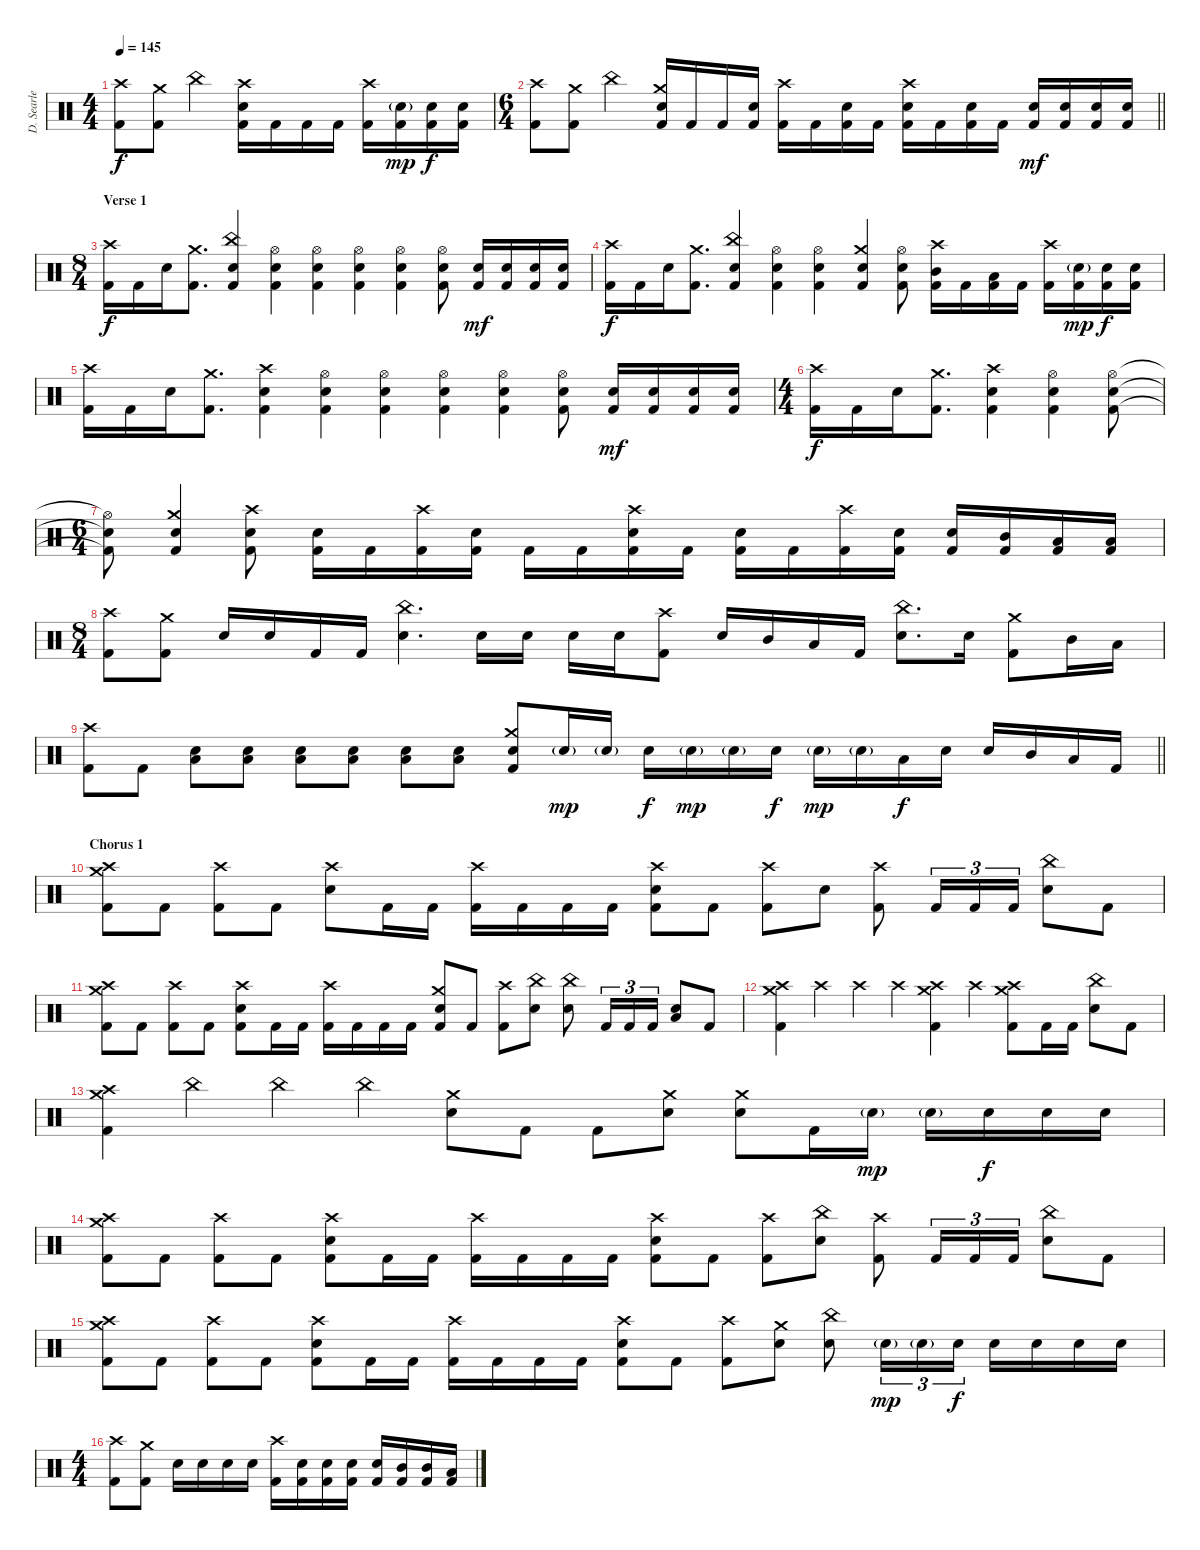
\track ("D. Searle" "D. Searle") {instrument percussion}
\staff {score}
\articulation defaults
\ts (4 4)
\tempo 145
\clef neutral
\ks c
("Crash high (hit)" "Kick (hit) 2").8{dy f} ("Crash medium (hit)" "Kick (hit) 2").8 "China (hit)".4 ("Crash high (hit)" "Electric Snare (hit)" "Kick (hit) 2").16 "Kick (hit) 2".16 "Kick (hit) 2".16 "Kick (hit) 2".16 ("Crash high (hit)" "Kick (hit) 2").16 ("Electric Snare (hit)"{g} "Kick (hit) 2").16{dy mp} ("Electric Snare (hit)" "Kick (hit) 2").16{dy f} ("Electric Snare (hit)" "Kick (hit) 2").16 |
\ts (6 4)
\barLineRight lightlight
("Crash high (hit)" "Kick (hit) 2").8 ("Crash medium (hit)" "Kick (hit) 2").8 "China (hit)".4 ("Crash medium (hit)" "Electric Snare (hit)" "Kick (hit) 2").16 "Kick (hit) 2".16 "Kick (hit) 2".16 ("Electric Snare (hit)" "Kick (hit) 2").16 ("Crash high (hit)" "Kick (hit) 2").16 "Kick (hit) 2".16 ("Electric Snare (hit)" "Kick (hit) 2").16 "Kick (hit) 2".16 ("Crash high (hit)" "Electric Snare (hit)" "Kick (hit) 2").16 "Kick (hit) 2".16 ("Electric Snare (hit)" "Kick (hit) 2").16 "Kick (hit) 2".16 ("Electric Snare (hit)" "Kick (hit) 2").16{dy mf} ("Electric Snare (hit)" "Kick (hit) 2").16 ("Electric Snare (hit)" "Kick (hit) 2").16 ("Electric Snare (hit)" "Kick (hit) 2").16 |
\ts (8 4)
\section ("" "Verse 1")
("Crash high (hit)" "Kick (hit) 2").16{dy f} "Kick (hit) 2".16 "Electric Snare (hit)".16 ("Crash medium (hit)" "Kick (hit) 2").8{d} ("China (hit)" "Electric Snare (hit)" "Kick (hit) 2").4 ("Hi-Hat (open)" "Electric Snare (hit)" "Kick (hit) 2").4 ("Hi-Hat (open)" "Electric Snare (hit)" "Kick (hit) 2").4 ("Hi-Hat (open)" "Electric Snare (hit)" "Kick (hit) 2").4 ("Hi-Hat (open)" "Electric Snare (hit)" "Kick (hit) 2").4 ("Hi-Hat (open)" "Electric Snare (hit)" "Kick (hit) 2").8 ("Electric Snare (hit)" "Kick (hit) 2").16{dy mf} ("Electric Snare (hit)" "Kick (hit) 2").16 ("Electric Snare (hit)" "Kick (hit) 2").16 ("Electric Snare (hit)" "Kick (hit) 2").16 |
("Crash high (hit)" "Kick (hit) 2").16{dy f} "Kick (hit) 2".16 "Electric Snare (hit)".16 ("Crash medium (hit)" "Kick (hit) 2").8{d} ("China (hit)" "Electric Snare (hit)" "Kick (hit) 2").4 ("Hi-Hat (open)" "Electric Snare (hit)" "Kick (hit) 2").4 ("Hi-Hat (open)" "Electric Snare (hit)" "Kick (hit) 2").4 ("Crash medium (hit)" "Electric Snare (hit)" "Kick (hit) 2").4 ("Hi-Hat (open)" "Electric Snare (hit)" "Kick (hit) 2").8 ("Crash high (hit)" "Mid Tom (hit)" "Kick (hit) 2").16 "Kick (hit) 2".16 ("Low Tom (hit)" "Kick (hit) 2").16 "Kick (hit) 2".16 ("Crash high (hit)" "Kick (hit) 2").16 ("Electric Snare (hit)"{g} "Kick (hit) 2").16{dy mp} ("Electric Snare (hit)" "Kick (hit) 2").16{dy f} ("Electric Snare (hit)" "Kick (hit) 2").16 |
("Crash high (hit)" "Kick (hit) 2").16 "Kick (hit) 2".16 "Electric Snare (hit)".16 ("Crash medium (hit)" "Kick (hit) 2").8{d} ("Crash high (hit)" "Electric Snare (hit)" "Kick (hit) 2").4 ("Hi-Hat (open)" "Electric Snare (hit)" "Kick (hit) 2").4 ("Hi-Hat (open)" "Electric Snare (hit)" "Kick (hit) 2").4 ("Hi-Hat (open)" "Electric Snare (hit)" "Kick (hit) 2").4 ("Hi-Hat (open)" "Electric Snare (hit)" "Kick (hit) 2").4 ("Hi-Hat (open)" "Electric Snare (hit)" "Kick (hit) 2").8 ("Electric Snare (hit)" "Kick (hit) 2").16{dy mf} ("Electric Snare (hit)" "Kick (hit) 2").16 ("Electric Snare (hit)" "Kick (hit) 2").16 ("Electric Snare (hit)" "Kick (hit) 2").16 |
\ts (4 4)
("Crash high (hit)" "Kick (hit) 2").16{dy f} "Kick (hit) 2".16 "Electric Snare (hit)".16 ("Crash medium (hit)" "Kick (hit) 2").8{d} ("Crash high (hit)" "Electric Snare (hit)" "Kick (hit) 2").4 ("Hi-Hat (open)" "Electric Snare (hit)" "Kick (hit) 2").4 ("Hi-Hat (open)" "Electric Snare (hit)" "Kick (hit) 2").8 |
\ts (6 4)
("Hi-Hat (open)"{t} "Electric Snare (hit)"{t} "Kick (hit) 2"{t}).8 ("Crash medium (hit)" "Electric Snare (hit)" "Kick (hit) 2").4 ("Crash high (hit)" "Electric Snare (hit)" "Kick (hit) 2").8 ("Electric Snare (hit)" "Kick (hit) 2").16 "Kick (hit) 2".16 ("Crash high (hit)" "Kick (hit) 2").16 ("Electric Snare (hit)" "Kick (hit) 2").16 "Kick (hit) 2".16 "Kick (hit) 2".16 ("Crash high (hit)" "Electric Snare (hit)" "Kick (hit) 2").16 "Kick (hit) 2".16 ("Electric Snare (hit)" "Kick (hit) 2").16 "Kick (hit) 2".16 ("Crash high (hit)" "Kick (hit) 2").16 ("Electric Snare (hit)" "Kick (hit) 2").16 ("Electric Snare (hit)" "Kick (hit) 2").16 ("Mid Tom (hit)" "Kick (hit) 2").16 ("Low Tom (hit)" "Kick (hit) 2").16 ("Low Tom (hit)" "Kick (hit) 2").16 |
\ts (8 4)
("Crash high (hit)" "Kick (hit) 2").8 ("Crash medium (hit)" "Kick (hit) 2").8 "Electric Snare (hit)".16 "Electric Snare (hit)".16 "Kick (hit) 2".16 "Kick (hit) 2".16 ("China (hit)" "Electric Snare (hit)").4{d} "Electric Snare (hit)".16 "Electric Snare (hit)".16 "Electric Snare (hit)".16 "Electric Snare (hit)".16 ("Crash high (hit)" "Kick (hit) 2").8 "Electric Snare (hit)".16 "Mid Tom (hit)".16 "Low Tom (hit)".16 "Kick (hit) 2".16 ("China (hit)" "Electric Snare (hit)").8{d} "Electric Snare (hit)".16 ("Crash medium (hit)" "Kick (hit) 2").8 "Mid Tom (hit)".16 "Low Tom (hit)".16 |
\barLineRight lightlight
("Crash high (hit)" "Kick (hit) 2").8 "Kick (hit) 2".8 ("Low Tom (hit)" "Electric Snare (hit)").8 ("Low Tom (hit)" "Electric Snare (hit)").8 ("Low Tom (hit)" "Electric Snare (hit)").8 ("Low Tom (hit)" "Electric Snare (hit)").8 ("Low Tom (hit)" "Electric Snare (hit)").8 ("Low Tom (hit)" "Electric Snare (hit)").8 ("Crash medium (hit)" "Electric Snare (hit)" "Kick (hit) 2").8 "Electric Snare (hit)"{g}.16{dy mp} "Electric Snare (hit)"{g}.16 "Electric Snare (hit)".16{dy f} "Electric Snare (hit)"{g}.16{dy mp} "Electric Snare (hit)"{g}.16 "Electric Snare (hit)".16{dy f} "Electric Snare (hit)"{g}.16{dy mp} "Electric Snare (hit)"{g}.16 "Low Tom (hit)".16{dy f} "Electric Snare (hit)".16 "Electric Snare (hit)".16 "Mid Tom (hit)".16 "Low Tom (hit)".16 "Kick (hit) 2".16 |
\section ("" "Chorus 1")
("Crash high (hit)" "Crash medium (hit)" "Kick (hit) 2").8 "Kick (hit) 2".8 ("Crash high (hit)" "Kick (hit) 2").8 "Kick (hit) 2".8 ("Crash high (hit)" "Electric Snare (hit)").8 "Kick (hit) 2".16 "Kick (hit) 2".16 ("Crash high (hit)" "Kick (hit) 2").16 "Kick (hit) 2".16 "Kick (hit) 2".16 "Kick (hit) 2".16 ("Crash high (hit)" "Electric Snare (hit)" "Kick (hit) 2").8 "Kick (hit) 2".8 ("Crash high (hit)" "Kick (hit) 2").8 "Electric Snare (hit)".8 ("Crash high (hit)" "Kick (hit) 2").8 "Kick (hit) 2".16{tu (3 2)} "Kick (hit) 2".16{tu (3 2)} "Kick (hit) 2".16{tu (3 2)} ("China (hit)" "Electric Snare (hit)").8 "Kick (hit) 2".8 |
("Crash high (hit)" "Crash medium (hit)" "Kick (hit) 2").8 "Kick (hit) 2".8 ("Crash high (hit)" "Kick (hit) 2").8 "Kick (hit) 2".8 ("Crash high (hit)" "Electric Snare (hit)" "Kick (hit) 2").8 "Kick (hit) 2".16 "Kick (hit) 2".16 ("Crash high (hit)" "Kick (hit) 2").16 "Kick (hit) 2".16 "Kick (hit) 2".16 "Kick (hit) 2".16 ("Crash medium (hit)" "Electric Snare (hit)" "Kick (hit) 2").8 "Kick (hit) 2".8 ("Crash high (hit)" "Kick (hit) 2").8 ("China (hit)" "Electric Snare (hit)").8 ("China (hit)" "Electric Snare (hit)").8 "Kick (hit) 2".16{tu (3 2)} "Kick (hit) 2".16{tu (3 2)} "Kick (hit) 2".16{tu (3 2)} ("Low Tom (hit)" "Electric Snare (hit)").8 "Kick (hit) 2".8 |
("Crash high (hit)" "Crash medium (hit)" "Kick (hit) 2").4 "Crash high (hit)".4 "Crash high (hit)".4 "Crash high (hit)".4 ("Crash high (hit)" "Crash medium (hit)" "Kick (hit) 2").4 "Crash high (hit)".4 ("Crash high (hit)" "Crash medium (hit)" "Kick (hit) 2").8 "Kick (hit) 2".16 "Kick (hit) 2".16 ("China (hit)" "Electric Snare (hit)").8 "Kick (hit) 2".8 |
("Crash high (hit)" "Crash medium (hit)" "Kick (hit) 2").4 "China (hit)".4 "China (hit)".4 "China (hit)".4 ("Crash medium (hit)" "Electric Snare (hit)").8 "Kick (hit) 2".8 "Kick (hit) 2".8 ("Crash medium (hit)" "Electric Snare (hit)").8 ("Crash medium (hit)" "Electric Snare (hit)").8 "Kick (hit) 2".16 "Electric Snare (hit)"{g}.16{dy mp} "Electric Snare (hit)"{g}.16 "Electric Snare (hit)".16{dy f} "Electric Snare (hit)".16 "Electric Snare (hit)".16 |
("Crash high (hit)" "Crash medium (hit)" "Kick (hit) 2").8 "Kick (hit) 2".8 ("Crash high (hit)" "Kick (hit) 2").8 "Kick (hit) 2".8 ("Crash high (hit)" "Electric Snare (hit)" "Kick (hit) 2").8 "Kick (hit) 2".16 "Kick (hit) 2".16 ("Crash high (hit)" "Kick (hit) 2").16 "Kick (hit) 2".16 "Kick (hit) 2".16 "Kick (hit) 2".16 ("Crash high (hit)" "Electric Snare (hit)" "Kick (hit) 2").8 "Kick (hit) 2".8 ("Crash high (hit)" "Kick (hit) 2").8 ("China (hit)" "Electric Snare (hit)").8 ("Crash high (hit)" "Kick (hit) 2").8 "Kick (hit) 2".16{tu (3 2)} "Kick (hit) 2".16{tu (3 2)} "Kick (hit) 2".16{tu (3 2)} ("China (hit)" "Electric Snare (hit)").8 "Kick (hit) 2".8 |
("Crash high (hit)" "Crash medium (hit)" "Kick (hit) 2").8 "Kick (hit) 2".8 ("Crash high (hit)" "Kick (hit) 2").8 "Kick (hit) 2".8 ("Crash high (hit)" "Electric Snare (hit)" "Kick (hit) 2").8 "Kick (hit) 2".16 "Kick (hit) 2".16 ("Crash high (hit)" "Kick (hit) 2").16 "Kick (hit) 2".16 "Kick (hit) 2".16 "Kick (hit) 2".16 ("Crash high (hit)" "Electric Snare (hit)" "Kick (hit) 2").8 "Kick (hit) 2".8 ("Crash high (hit)" "Kick (hit) 2").8 ("Crash medium (hit)" "Electric Snare (hit)").8 ("China (hit)" "Electric Snare (hit)").8 "Electric Snare (hit)"{g}.16{tu (3 2) dy mp} "Electric Snare (hit)"{g}.16{tu (3 2)} "Electric Snare (hit)".16{tu (3 2) dy f} "Electric Snare (hit)".16 "Electric Snare (hit)".16 "Electric Snare (hit)".16 "Electric Snare (hit)".16 |
\ts (4 4)
("Crash high (hit)" "Kick (hit) 2").8 ("Crash medium (hit)" "Kick (hit) 2").8 "Electric Snare (hit)".16 "Electric Snare (hit)".16 "Electric Snare (hit)".16 "Electric Snare (hit)".16 ("Crash high (hit)" "Kick (hit) 2").16 ("Electric Snare (hit)" "Kick (hit) 2").16 ("Electric Snare (hit)" "Kick (hit) 2").16 ("Electric Snare (hit)" "Kick (hit) 2").16 ("Electric Snare (hit)" "Kick (hit) 2").16 ("Mid Tom (hit)" "Kick (hit) 2").16 ("Mid Tom (hit)" "Kick (hit) 2").16 ("Low Tom (hit)" "Kick (hit) 2").16
